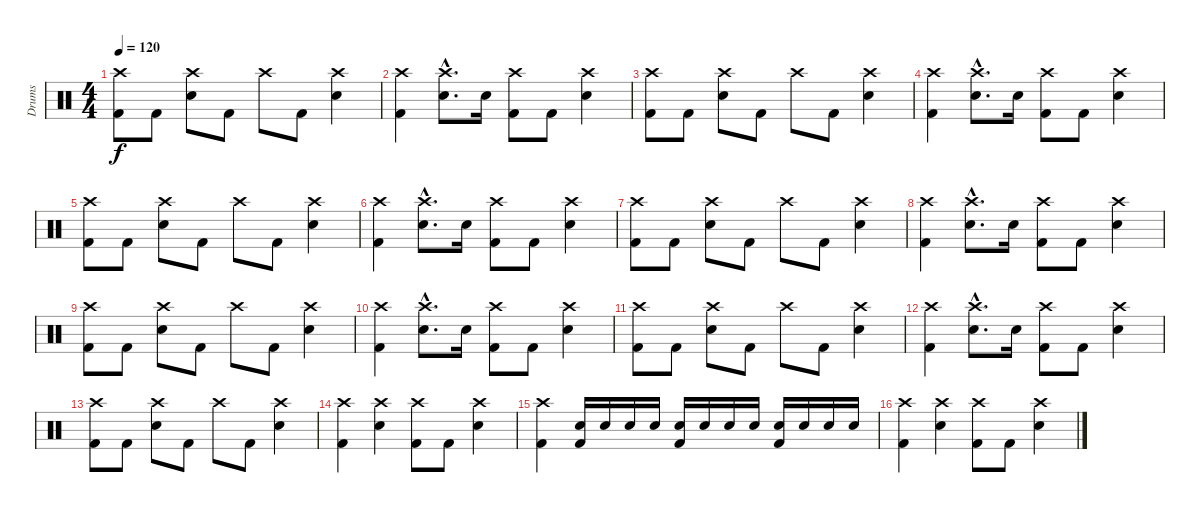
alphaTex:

\track ("Drums" "Drums") {instrument percussion}
\staff {score}
\articulation defaults
\ts (4 4)
\tempo 120
\clef neutral
\ks c
("Crash high (hit)" "Kick (hit) 2").8{dy f} "Kick (hit) 2".8 ("Crash high (hit)" "Snare (hit) 2").8 "Kick (hit) 2".8 "Crash high (hit)".8 "Kick (hit) 2".8 ("Crash high (hit)" "Snare (hit) 2").4 |
("Crash high (hit)" "Kick (hit) 2").4 ("Crash high (hit)"{hac} "Snare (hit) 2"{hac}).8{d} "Snare (hit) 2".16 ("Crash high (hit)" "Kick (hit) 2").8 "Kick (hit) 2".8 ("Crash high (hit)" "Snare (hit) 2").4 |
("Crash high (hit)" "Kick (hit) 2").8 "Kick (hit) 2".8 ("Crash high (hit)" "Snare (hit) 2").8 "Kick (hit) 2".8 "Crash high (hit)".8 "Kick (hit) 2".8 ("Crash high (hit)" "Snare (hit) 2").4 |
("Crash high (hit)" "Kick (hit) 2").4 ("Crash high (hit)"{hac} "Snare (hit) 2"{hac}).8{d} "Snare (hit) 2".16 ("Crash high (hit)" "Kick (hit) 2").8 "Kick (hit) 2".8 ("Crash high (hit)" "Snare (hit) 2").4 |
("Crash high (hit)" "Kick (hit) 2").8 "Kick (hit) 2".8 ("Crash high (hit)" "Snare (hit) 2").8 "Kick (hit) 2".8 "Crash high (hit)".8 "Kick (hit) 2".8 ("Crash high (hit)" "Snare (hit) 2").4 |
("Crash high (hit)" "Kick (hit) 2").4 ("Crash high (hit)"{hac} "Snare (hit) 2"{hac}).8{d} "Snare (hit) 2".16 ("Crash high (hit)" "Kick (hit) 2").8 "Kick (hit) 2".8 ("Crash high (hit)" "Snare (hit) 2").4 |
("Crash high (hit)" "Kick (hit) 2").8 "Kick (hit) 2".8 ("Crash high (hit)" "Snare (hit) 2").8 "Kick (hit) 2".8 "Crash high (hit)".8 "Kick (hit) 2".8 ("Crash high (hit)" "Snare (hit) 2").4 |
("Crash high (hit)" "Kick (hit) 2").4 ("Crash high (hit)"{hac} "Snare (hit) 2"{hac}).8{d} "Snare (hit) 2".16 ("Crash high (hit)" "Kick (hit) 2").8 "Kick (hit) 2".8 ("Crash high (hit)" "Snare (hit) 2").4 |
("Crash high (hit)" "Kick (hit) 2").8 "Kick (hit) 2".8 ("Crash high (hit)" "Snare (hit) 2").8 "Kick (hit) 2".8 "Crash high (hit)".8 "Kick (hit) 2".8 ("Crash high (hit)" "Snare (hit) 2").4 |
("Crash high (hit)" "Kick (hit) 2").4 ("Crash high (hit)"{hac} "Snare (hit) 2"{hac}).8{d} "Snare (hit) 2".16 ("Crash high (hit)" "Kick (hit) 2").8 "Kick (hit) 2".8 ("Crash high (hit)" "Snare (hit) 2").4 |
("Crash high (hit)" "Kick (hit) 2").8 "Kick (hit) 2".8 ("Crash high (hit)" "Snare (hit) 2").8 "Kick (hit) 2".8 "Crash high (hit)".8 "Kick (hit) 2".8 ("Crash high (hit)" "Snare (hit) 2").4 |
("Crash high (hit)" "Kick (hit) 2").4 ("Crash high (hit)"{hac} "Snare (hit) 2"{hac}).8{d} "Snare (hit) 2".16 ("Crash high (hit)" "Kick (hit) 2").8 "Kick (hit) 2".8 ("Crash high (hit)" "Snare (hit) 2").4 |
("Crash high (hit)" "Kick (hit) 2").8 "Kick (hit) 2".8 ("Crash high (hit)" "Snare (hit) 2").8 "Kick (hit) 2".8 "Crash high (hit)".8 "Kick (hit) 2".8 ("Crash high (hit)" "Snare (hit) 2").4 |
("Crash high (hit)" "Kick (hit) 2").4 ("Crash high (hit)" "Snare (hit) 2").4 ("Crash high (hit)" "Kick (hit) 2").8 "Kick (hit) 2".8 ("Crash high (hit)" "Snare (hit) 2").4 |
("Crash high (hit)" "Kick (hit) 2").4 ("Kick (hit) 2" "Snare (hit) 2").16 "Snare (hit) 2".16 "Snare (hit) 2".16 "Snare (hit) 2".16 ("Kick (hit) 2" "Snare (hit) 2").16 "Snare (hit) 2".16 "Snare (hit) 2".16 "Snare (hit) 2".16 ("Kick (hit) 2" "Snare (hit) 2").16 "Snare (hit) 2".16 "Snare (hit) 2".16 "Snare (hit) 2".16 |
("Crash high (hit)" "Kick (hit) 2").4 ("Crash high (hit)" "Snare (hit) 2").4 ("Crash high (hit)" "Kick (hit) 2").8 "Kick (hit) 2".8 ("Crash high (hit)" "Snare (hit) 2").4
